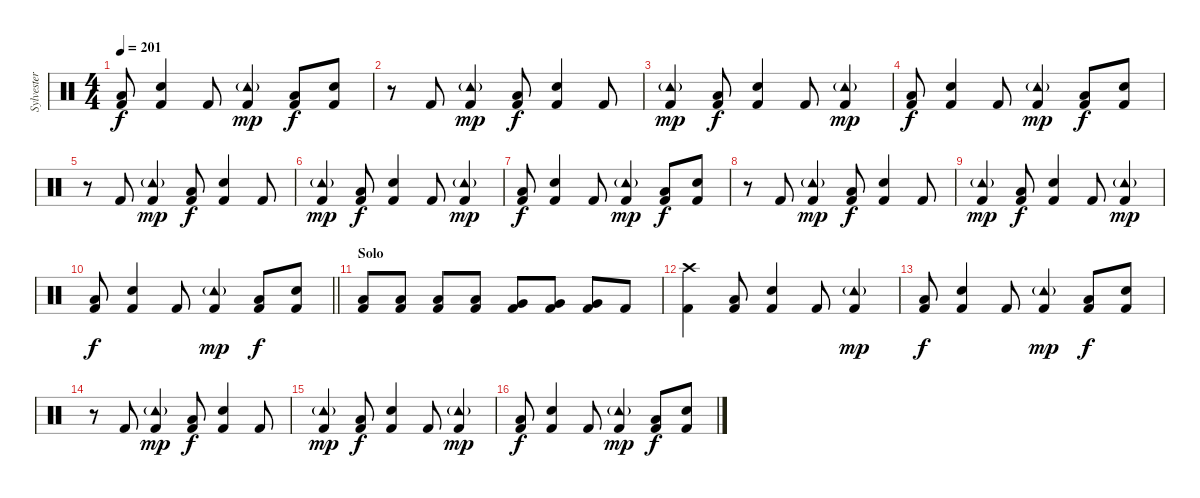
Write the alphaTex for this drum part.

\track ("Sylvester Schlegel" "Sylvester ") {instrument percussion}
\staff {score}
\articulation defaults
\ts (4 4)
\tempo 201
\clef neutral
\ks c
("Low Floor Tom (hit)" "Kick (hit) 2").8{dy f} ("Snare (hit) 2" "Kick (hit) 2").4 "Kick (hit) 2".8 ("Tambourine (hit)"{g} "Kick (hit) 2").4{dy mp} ("Low Floor Tom (hit)" "Kick (hit) 2").8{dy f} ("Snare (hit) 2" "Kick (hit) 2").8 |
r.8 "Kick (hit) 2".8 ("Tambourine (hit)"{g} "Kick (hit) 2").4{dy mp} ("Low Floor Tom (hit)" "Kick (hit) 2").8{dy f} ("Snare (hit) 2" "Kick (hit) 2").4 "Kick (hit) 2".8 |
("Tambourine (hit)"{g} "Kick (hit) 2").4{dy mp} ("Low Floor Tom (hit)" "Kick (hit) 2").8{dy f} ("Snare (hit) 2" "Kick (hit) 2").4 "Kick (hit) 2".8 ("Tambourine (hit)"{g} "Kick (hit) 2").4{dy mp} |
("Low Floor Tom (hit)" "Kick (hit) 2").8{dy f} ("Snare (hit) 2" "Kick (hit) 2").4 "Kick (hit) 2".8 ("Tambourine (hit)"{g} "Kick (hit) 2").4{dy mp} ("Low Floor Tom (hit)" "Kick (hit) 2").8{dy f} ("Snare (hit) 2" "Kick (hit) 2").8 |
r.8 "Kick (hit) 2".8 ("Tambourine (hit)"{g} "Kick (hit) 2").4{dy mp} ("Low Floor Tom (hit)" "Kick (hit) 2").8{dy f} ("Snare (hit) 2" "Kick (hit) 2").4 "Kick (hit) 2".8 |
("Tambourine (hit)"{g} "Kick (hit) 2").4{dy mp} ("Low Floor Tom (hit)" "Kick (hit) 2").8{dy f} ("Snare (hit) 2" "Kick (hit) 2").4 "Kick (hit) 2".8 ("Tambourine (hit)"{g} "Kick (hit) 2").4{dy mp} |
("Low Floor Tom (hit)" "Kick (hit) 2").8{dy f} ("Snare (hit) 2" "Kick (hit) 2").4 "Kick (hit) 2".8 ("Tambourine (hit)"{g} "Kick (hit) 2").4{dy mp} ("Low Floor Tom (hit)" "Kick (hit) 2").8{dy f} ("Snare (hit) 2" "Kick (hit) 2").8 |
r.8 "Kick (hit) 2".8 ("Tambourine (hit)"{g} "Kick (hit) 2").4{dy mp} ("Low Floor Tom (hit)" "Kick (hit) 2").8{dy f} ("Snare (hit) 2" "Kick (hit) 2").4 "Kick (hit) 2".8 |
("Tambourine (hit)"{g} "Kick (hit) 2").4{dy mp} ("Low Floor Tom (hit)" "Kick (hit) 2").8{dy f} ("Snare (hit) 2" "Kick (hit) 2").4 "Kick (hit) 2".8 ("Tambourine (hit)"{g} "Kick (hit) 2").4{dy mp} |
\barLineRight lightlight
("Low Floor Tom (hit)" "Kick (hit) 2").8{dy f} ("Snare (hit) 2" "Kick (hit) 2").4 "Kick (hit) 2".8 ("Tambourine (hit)"{g} "Kick (hit) 2").4{dy mp} ("Low Floor Tom (hit)" "Kick (hit) 2").8{dy f} ("Snare (hit) 2" "Kick (hit) 2").8 |
\section ("" "Solo")
("Low Tom (hit)" "Kick (hit) 2").8 ("Low Tom (hit)" "Kick (hit) 2").8 ("Low Tom (hit)" "Kick (hit) 2").8 ("Low Floor Tom (hit)" "Kick (hit) 2").8 ("Very Low Tom (hit)" "Kick (hit) 2").8 ("Very Low Tom (hit)" "Kick (hit) 2").8 ("Very Low Tom (hit)" "Kick (hit) 2").8 "Kick (hit) 2".8 |
("Crash high (hit)" "Kick (hit) 2").4 ("Low Floor Tom (hit)" "Kick (hit) 2").8 ("Snare (hit) 2" "Kick (hit) 2").4 "Kick (hit) 2".8 ("Tambourine (hit)"{g} "Kick (hit) 2").4{dy mp} |
("Low Floor Tom (hit)" "Kick (hit) 2").8{dy f} ("Snare (hit) 2" "Kick (hit) 2").4 "Kick (hit) 2".8 ("Tambourine (hit)"{g} "Kick (hit) 2").4{dy mp} ("Low Floor Tom (hit)" "Kick (hit) 2").8{dy f} ("Snare (hit) 2" "Kick (hit) 2").8 |
r.8 "Kick (hit) 2".8 ("Tambourine (hit)"{g} "Kick (hit) 2").4{dy mp} ("Low Floor Tom (hit)" "Kick (hit) 2").8{dy f} ("Snare (hit) 2" "Kick (hit) 2").4 "Kick (hit) 2".8 |
("Tambourine (hit)"{g} "Kick (hit) 2").4{dy mp} ("Low Floor Tom (hit)" "Kick (hit) 2").8{dy f} ("Snare (hit) 2" "Kick (hit) 2").4 "Kick (hit) 2".8 ("Tambourine (hit)"{g} "Kick (hit) 2").4{dy mp} |
("Low Floor Tom (hit)" "Kick (hit) 2").8{dy f} ("Snare (hit) 2" "Kick (hit) 2").4 "Kick (hit) 2".8 ("Tambourine (hit)"{g} "Kick (hit) 2").4{dy mp} ("Low Floor Tom (hit)" "Kick (hit) 2").8{dy f} ("Snare (hit) 2" "Kick (hit) 2").8
